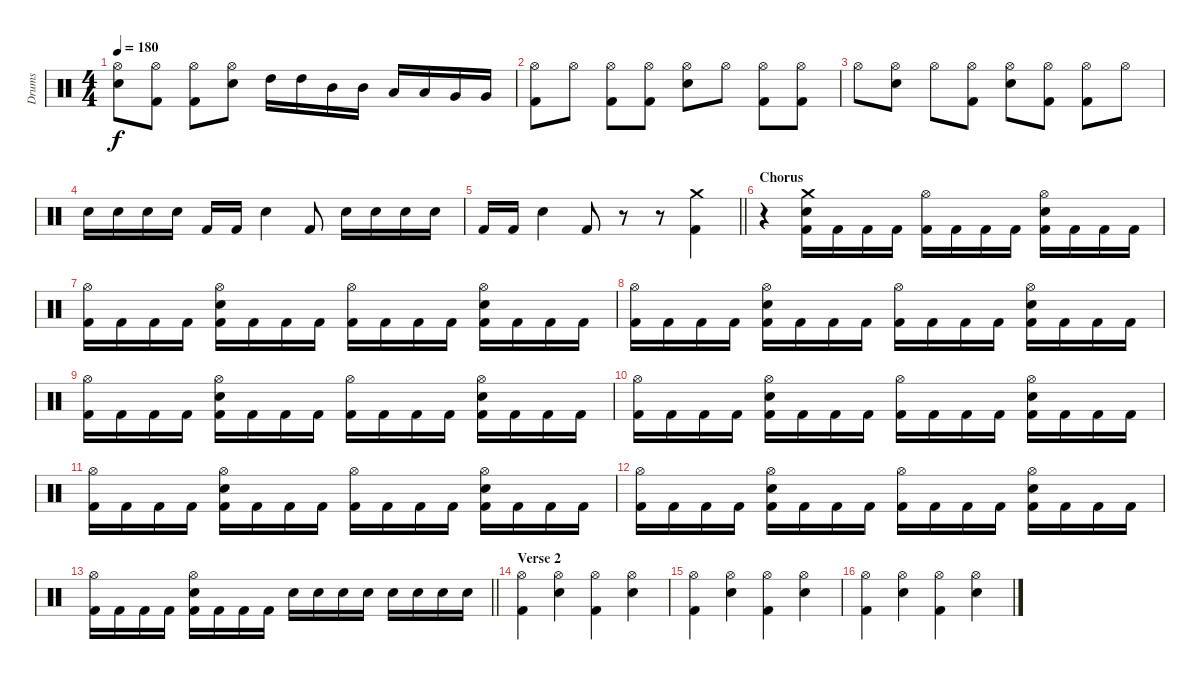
\track ("Drums" "Drums") {instrument percussion}
\staff {score}
\articulation defaults
\ts (4 4)
\tempo 180
\clef neutral
\ks c
("Hi-Hat (open)" "Electric Snare (hit)").8{dy f} ("Hi-Hat (open)" "Kick (hit) 2").8 ("Hi-Hat (open)" "Kick (hit) 2").8 ("Hi-Hat (open)" "Electric Snare (hit)").8 "High Tom (hit)".16 "High Tom (hit)".16 "Mid Tom (hit)".16 "Mid Tom (hit)".16 "Low Tom (hit)".16 "Low Tom (hit)".16 "Very Low Tom (hit)".16 "Very Low Tom (hit)".16 |
("Hi-Hat (open)" "Kick (hit) 2").8 "Hi-Hat (open)".8 ("Hi-Hat (open)" "Kick (hit) 2").8 ("Hi-Hat (open)" "Kick (hit) 2").8 ("Hi-Hat (open)" "Electric Snare (hit)").8 "Hi-Hat (open)".8 ("Hi-Hat (open)" "Kick (hit) 2").8 ("Hi-Hat (open)" "Kick (hit) 2").8 |
"Hi-Hat (open)".8 ("Hi-Hat (open)" "Electric Snare (hit)").8 "Hi-Hat (open)".8 ("Hi-Hat (open)" "Kick (hit) 2").8 ("Hi-Hat (open)" "Electric Snare (hit)").8 ("Hi-Hat (open)" "Kick (hit) 2").8 ("Hi-Hat (open)" "Kick (hit) 2").8 "Hi-Hat (open)".8 |
"Electric Snare (hit)".16 "Electric Snare (hit)".16 "Electric Snare (hit)".16 "Electric Snare (hit)".16 "Kick (hit) 2".16 "Kick (hit) 2".16 "Electric Snare (hit)".4 "Kick (hit) 2".8 "Electric Snare (hit)".16 "Electric Snare (hit)".16 "Electric Snare (hit)".16 "Electric Snare (hit)".16 |
\barLineRight lightlight "Kick (hit) 2".16 "Kick (hit) 2".16 "Electric Snare (hit)".4 "Kick (hit) 2".8
r.8 r.8 ("Crash medium (hit)" "Kick (hit) 2").4 |
\section ("" "Chorus")
r.4 ("Crash medium (hit)" "Electric Snare (hit)" "Kick (hit) 2").16 "Kick (hit) 2".16 "Kick (hit) 2".16 "Kick (hit) 2".16 ("Hi-Hat (open)" "Kick (hit) 2").16 "Kick (hit) 2".16 "Kick (hit) 2".16 "Kick (hit) 2".16 ("Hi-Hat (open)" "Electric Snare (hit)" "Kick (hit) 2").16 "Kick (hit) 2".16 "Kick (hit) 2".16 "Kick (hit) 2".16 |
("Hi-Hat (open)" "Kick (hit) 2").16 "Kick (hit) 2".16 "Kick (hit) 2".16 "Kick (hit) 2".16 ("Hi-Hat (open)" "Electric Snare (hit)" "Kick (hit) 2").16 "Kick (hit) 2".16 "Kick (hit) 2".16 "Kick (hit) 2".16 ("Hi-Hat (open)" "Kick (hit) 2").16 "Kick (hit) 2".16 "Kick (hit) 2".16 "Kick (hit) 2".16 ("Hi-Hat (open)" "Electric Snare (hit)" "Kick (hit) 2").16 "Kick (hit) 2".16 "Kick (hit) 2".16 "Kick (hit) 2".16 |
("Hi-Hat (open)" "Kick (hit) 2").16 "Kick (hit) 2".16 "Kick (hit) 2".16 "Kick (hit) 2".16 ("Hi-Hat (open)" "Electric Snare (hit)" "Kick (hit) 2").16 "Kick (hit) 2".16 "Kick (hit) 2".16 "Kick (hit) 2".16 ("Hi-Hat (open)" "Kick (hit) 2").16 "Kick (hit) 2".16 "Kick (hit) 2".16 "Kick (hit) 2".16 ("Hi-Hat (open)" "Electric Snare (hit)" "Kick (hit) 2").16 "Kick (hit) 2".16 "Kick (hit) 2".16 "Kick (hit) 2".16 |
("Hi-Hat (open)" "Kick (hit) 2").16 "Kick (hit) 2".16 "Kick (hit) 2".16 "Kick (hit) 2".16 ("Hi-Hat (open)" "Electric Snare (hit)" "Kick (hit) 2").16 "Kick (hit) 2".16 "Kick (hit) 2".16 "Kick (hit) 2".16 ("Hi-Hat (open)" "Kick (hit) 2").16 "Kick (hit) 2".16 "Kick (hit) 2".16 "Kick (hit) 2".16 ("Hi-Hat (open)" "Electric Snare (hit)" "Kick (hit) 2").16 "Kick (hit) 2".16 "Kick (hit) 2".16 "Kick (hit) 2".16 |
("Hi-Hat (open)" "Kick (hit) 2").16 "Kick (hit) 2".16 "Kick (hit) 2".16 "Kick (hit) 2".16 ("Hi-Hat (open)" "Electric Snare (hit)" "Kick (hit) 2").16 "Kick (hit) 2".16 "Kick (hit) 2".16 "Kick (hit) 2".16 ("Hi-Hat (open)" "Kick (hit) 2").16 "Kick (hit) 2".16 "Kick (hit) 2".16 "Kick (hit) 2".16 ("Hi-Hat (open)" "Electric Snare (hit)" "Kick (hit) 2").16 "Kick (hit) 2".16 "Kick (hit) 2".16 "Kick (hit) 2".16 |
("Hi-Hat (open)" "Kick (hit) 2").16 "Kick (hit) 2".16 "Kick (hit) 2".16 "Kick (hit) 2".16 ("Hi-Hat (open)" "Electric Snare (hit)" "Kick (hit) 2").16 "Kick (hit) 2".16 "Kick (hit) 2".16 "Kick (hit) 2".16 ("Hi-Hat (open)" "Kick (hit) 2").16 "Kick (hit) 2".16 "Kick (hit) 2".16 "Kick (hit) 2".16 ("Hi-Hat (open)" "Electric Snare (hit)" "Kick (hit) 2").16 "Kick (hit) 2".16 "Kick (hit) 2".16 "Kick (hit) 2".16 |
("Hi-Hat (open)" "Kick (hit) 2").16 "Kick (hit) 2".16 "Kick (hit) 2".16 "Kick (hit) 2".16 ("Hi-Hat (open)" "Electric Snare (hit)" "Kick (hit) 2").16 "Kick (hit) 2".16 "Kick (hit) 2".16 "Kick (hit) 2".16 ("Hi-Hat (open)" "Kick (hit) 2").16 "Kick (hit) 2".16 "Kick (hit) 2".16 "Kick (hit) 2".16 ("Hi-Hat (open)" "Electric Snare (hit)" "Kick (hit) 2").16 "Kick (hit) 2".16 "Kick (hit) 2".16 "Kick (hit) 2".16 |
\barLineRight lightlight
("Hi-Hat (open)" "Kick (hit) 2").16 "Kick (hit) 2".16 "Kick (hit) 2".16 "Kick (hit) 2".16 ("Hi-Hat (open)" "Electric Snare (hit)" "Kick (hit) 2").16 "Kick (hit) 2".16 "Kick (hit) 2".16 "Kick (hit) 2".16 "Electric Snare (hit)".16 "Electric Snare (hit)".16 "Electric Snare (hit)".16 "Electric Snare (hit)".16 "Electric Snare (hit)".16 "Electric Snare (hit)".16 "Electric Snare (hit)".16 "Electric Snare (hit)".16 |
\section ("" "Verse 2")
("Hi-Hat (open)" "Kick (hit) 2").4 ("Hi-Hat (open)" "Electric Snare (hit)").4 ("Hi-Hat (open)" "Kick (hit) 2").4 ("Hi-Hat (open)" "Electric Snare (hit)").4 |
("Hi-Hat (open)" "Kick (hit) 2").4 ("Hi-Hat (open)" "Electric Snare (hit)").4 ("Hi-Hat (open)" "Kick (hit) 2").4 ("Hi-Hat (open)" "Electric Snare (hit)").4 |
("Hi-Hat (open)" "Kick (hit) 2").4 ("Hi-Hat (open)" "Electric Snare (hit)").4 ("Hi-Hat (open)" "Kick (hit) 2").4 ("Hi-Hat (open)" "Electric Snare (hit)").4
